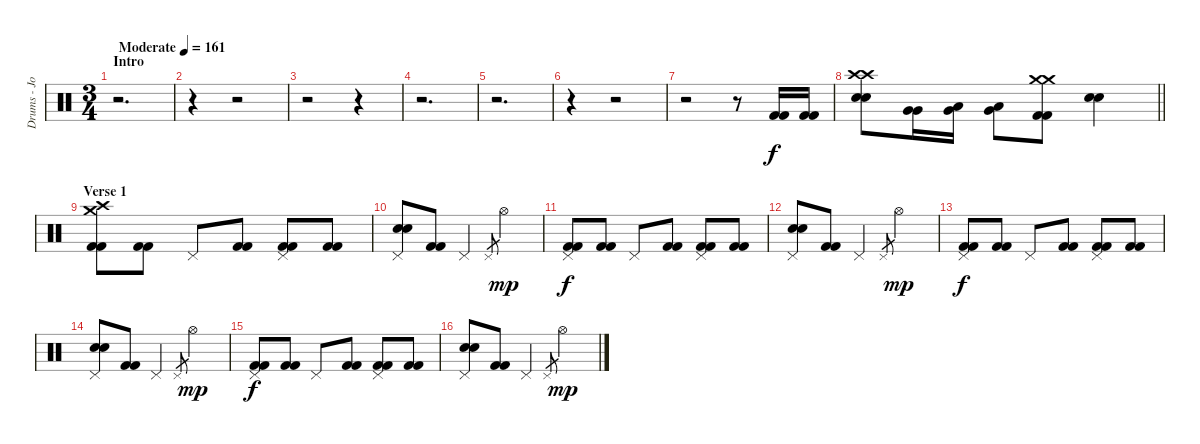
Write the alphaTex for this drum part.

\track ("Drums - Jon Wilkes" "Drums - Jo") {instrument percussion}
\staff {score}
\articulation defaults
\ts (3 4)
\section ("" "Intro")
\tempo (161 "Moderate")
\clef neutral
\ks c
r.2{d dy f} |
r.4 r.2 |
r.2 r.4 |
r.2{d} |
r.2{d} |
r.4 r.2 |
r.2 r.8 ("Kick (hit) 2" "Kick (hit) 2").16 ("Kick (hit) 2" "Kick (hit) 2").16 |
\barLineRight lightlight
("Crash high (hit)" "Crash high (hit)" "Electric Snare (hit)" "Electric Snare (hit)").8 ("Very Low Tom (hit)" "Very Low Tom (hit)").16 ("Very Low Tom (hit)" "Low Floor Tom (hit)").16 ("Very Low Tom (hit)" "Low Floor Tom (hit)").8 ("Crash medium (hit)" "Crash medium (hit)" "Kick (hit) 2" "Kick (hit) 2").8 ("Electric Snare (hit)" "Electric Snare (hit)").4 |
\section ("" "Verse 1")
("Crash medium (hit)" "Crash high (hit)" "Kick (hit) 2" "Kick (hit) 2").8 ("Kick (hit) 2" "Kick (hit) 2").8 "Pedal Hi-Hat (hit)".8 ("Kick (hit) 2" "Kick (hit) 2").8 ("Pedal Hi-Hat (hit)" "Kick (hit) 2" "Kick (hit) 2").8 ("Kick (hit) 2" "Kick (hit) 2").8 |
("Pedal Hi-Hat (hit)" "Electric Snare (hit)" "Electric Snare (hit)").8 ("Kick (hit) 2" "Kick (hit) 2").8 "Pedal Hi-Hat (hit)".4 "Pedal Hi-Hat (hit)".8{gr} "Hi-Hat (open)".4{dy mp} |
("Pedal Hi-Hat (hit)" "Kick (hit) 2" "Kick (hit) 2").8{dy f} ("Kick (hit) 2" "Kick (hit) 2").8 "Pedal Hi-Hat (hit)".8 ("Kick (hit) 2" "Kick (hit) 2").8 ("Pedal Hi-Hat (hit)" "Kick (hit) 2" "Kick (hit) 2").8 ("Kick (hit) 2" "Kick (hit) 2").8 |
("Pedal Hi-Hat (hit)" "Electric Snare (hit)" "Electric Snare (hit)").8 ("Kick (hit) 2" "Kick (hit) 2").8 "Pedal Hi-Hat (hit)".4 "Pedal Hi-Hat (hit)".8{gr} "Hi-Hat (open)".4{dy mp} |
("Pedal Hi-Hat (hit)" "Kick (hit) 2" "Kick (hit) 2").8{dy f} ("Kick (hit) 2" "Kick (hit) 2").8 "Pedal Hi-Hat (hit)".8 ("Kick (hit) 2" "Kick (hit) 2").8 ("Pedal Hi-Hat (hit)" "Kick (hit) 2" "Kick (hit) 2").8 ("Kick (hit) 2" "Kick (hit) 2").8 |
("Pedal Hi-Hat (hit)" "Electric Snare (hit)" "Electric Snare (hit)").8 ("Kick (hit) 2" "Kick (hit) 2").8 "Pedal Hi-Hat (hit)".4 "Pedal Hi-Hat (hit)".8{gr} "Hi-Hat (open)".4{dy mp} |
("Pedal Hi-Hat (hit)" "Kick (hit) 2" "Kick (hit) 2").8{dy f} ("Kick (hit) 2" "Kick (hit) 2").8 "Pedal Hi-Hat (hit)".8 ("Kick (hit) 2" "Kick (hit) 2").8 ("Pedal Hi-Hat (hit)" "Kick (hit) 2" "Kick (hit) 2").8 ("Kick (hit) 2" "Kick (hit) 2").8 |
("Pedal Hi-Hat (hit)" "Electric Snare (hit)" "Electric Snare (hit)").8 ("Kick (hit) 2" "Kick (hit) 2").8 "Pedal Hi-Hat (hit)".4 "Pedal Hi-Hat (hit)".8{gr} "Hi-Hat (open)".4{dy mp}
